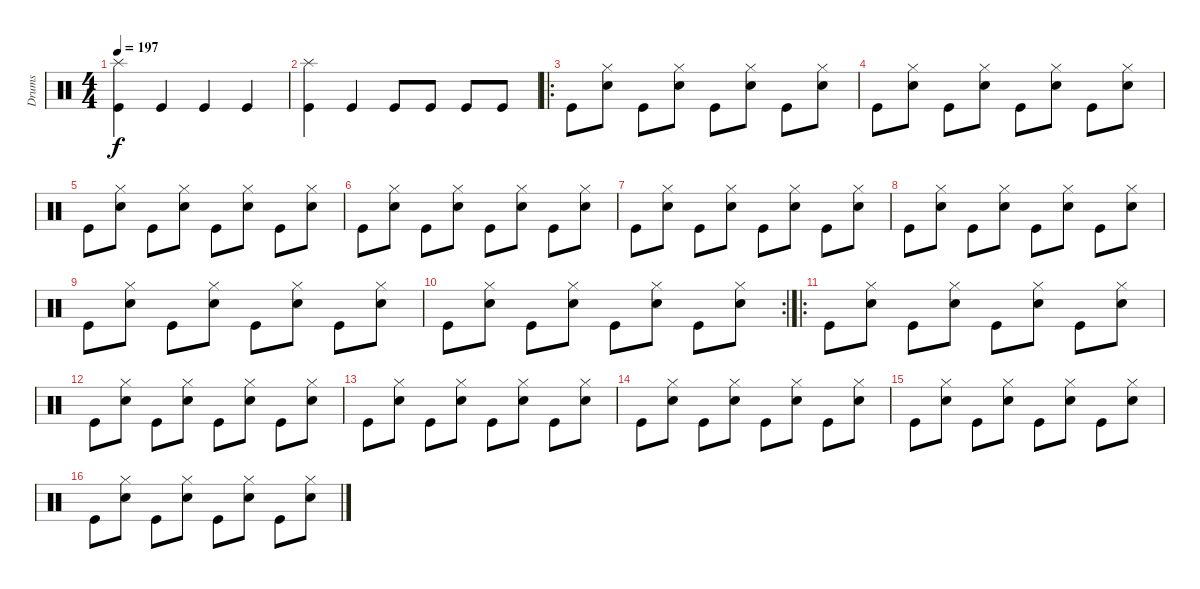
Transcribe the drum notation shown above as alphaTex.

\track ("Drums" "Drums") {instrument percussion}
\staff {score}
\articulation defaults
\ts (4 4)
\tempo 197
\clef neutral
\ks c
("Splash (hit)" "Kick (hit)").4{dy f} "Kick (hit)".4 "Kick (hit)".4 "Kick (hit)".4 |
("Splash (hit)" "Kick (hit)").4 "Kick (hit)".4 "Kick (hit)".8 "Kick (hit)".8 "Kick (hit)".8 "Kick (hit)".8 |
\ro "Kick (hit)".8
("Hi-Hat (closed)" "Snare (hit) 2").8 "Kick (hit)".8 ("Hi-Hat (closed)" "Snare (hit) 2").8 "Kick (hit)".8 ("Hi-Hat (closed)" "Snare (hit) 2").8 "Kick (hit)".8 ("Hi-Hat (closed)" "Snare (hit) 2").8 |
"Kick (hit)".8 ("Hi-Hat (closed)" "Snare (hit) 2").8 "Kick (hit)".8 ("Hi-Hat (closed)" "Snare (hit) 2").8 "Kick (hit)".8 ("Hi-Hat (closed)" "Snare (hit) 2").8 "Kick (hit)".8 ("Hi-Hat (closed)" "Snare (hit) 2").8 |
"Kick (hit)".8 ("Hi-Hat (closed)" "Snare (hit) 2").8 "Kick (hit)".8 ("Hi-Hat (closed)" "Snare (hit) 2").8 "Kick (hit)".8 ("Hi-Hat (closed)" "Snare (hit) 2").8 "Kick (hit)".8 ("Hi-Hat (closed)" "Snare (hit) 2").8 |
"Kick (hit)".8 ("Hi-Hat (closed)" "Snare (hit) 2").8 "Kick (hit)".8 ("Hi-Hat (closed)" "Snare (hit) 2").8 "Kick (hit)".8 ("Hi-Hat (closed)" "Snare (hit) 2").8 "Kick (hit)".8 ("Hi-Hat (closed)" "Snare (hit) 2").8 |
"Kick (hit)".8 ("Hi-Hat (closed)" "Snare (hit) 2").8 "Kick (hit)".8 ("Hi-Hat (closed)" "Snare (hit) 2").8 "Kick (hit)".8 ("Hi-Hat (closed)" "Snare (hit) 2").8 "Kick (hit)".8 ("Hi-Hat (closed)" "Snare (hit) 2").8 |
"Kick (hit)".8 ("Hi-Hat (closed)" "Snare (hit) 2").8 "Kick (hit)".8 ("Hi-Hat (closed)" "Snare (hit) 2").8 "Kick (hit)".8 ("Hi-Hat (closed)" "Snare (hit) 2").8 "Kick (hit)".8 ("Hi-Hat (closed)" "Snare (hit) 2").8 |
"Kick (hit)".8 ("Hi-Hat (closed)" "Snare (hit) 2").8 "Kick (hit)".8 ("Hi-Hat (closed)" "Snare (hit) 2").8 "Kick (hit)".8 ("Hi-Hat (closed)" "Snare (hit) 2").8 "Kick (hit)".8 ("Hi-Hat (closed)" "Snare (hit) 2").8 |
\rc 2 "Kick (hit)".8
("Hi-Hat (closed)" "Snare (hit) 2").8 "Kick (hit)".8 ("Hi-Hat (closed)" "Snare (hit) 2").8 "Kick (hit)".8 ("Hi-Hat (closed)" "Snare (hit) 2").8 "Kick (hit)".8 ("Hi-Hat (closed)" "Snare (hit) 2").8 |
\ro "Kick (hit)".8
("Hi-Hat (closed)" "Snare (hit) 2").8 "Kick (hit)".8 ("Hi-Hat (closed)" "Snare (hit) 2").8 "Kick (hit)".8 ("Hi-Hat (closed)" "Snare (hit) 2").8 "Kick (hit)".8 ("Hi-Hat (closed)" "Snare (hit) 2").8 |
"Kick (hit)".8 ("Hi-Hat (closed)" "Snare (hit) 2").8 "Kick (hit)".8 ("Hi-Hat (closed)" "Snare (hit) 2").8 "Kick (hit)".8 ("Hi-Hat (closed)" "Snare (hit) 2").8 "Kick (hit)".8 ("Hi-Hat (closed)" "Snare (hit) 2").8 |
"Kick (hit)".8 ("Hi-Hat (closed)" "Snare (hit) 2").8 "Kick (hit)".8 ("Hi-Hat (closed)" "Snare (hit) 2").8 "Kick (hit)".8 ("Hi-Hat (closed)" "Snare (hit) 2").8 "Kick (hit)".8 ("Hi-Hat (closed)" "Snare (hit) 2").8 |
"Kick (hit)".8 ("Hi-Hat (closed)" "Snare (hit) 2").8 "Kick (hit)".8 ("Hi-Hat (closed)" "Snare (hit) 2").8 "Kick (hit)".8 ("Hi-Hat (closed)" "Snare (hit) 2").8 "Kick (hit)".8 ("Hi-Hat (closed)" "Snare (hit) 2").8 |
"Kick (hit)".8 ("Hi-Hat (closed)" "Snare (hit) 2").8 "Kick (hit)".8 ("Hi-Hat (closed)" "Snare (hit) 2").8 "Kick (hit)".8 ("Hi-Hat (closed)" "Snare (hit) 2").8 "Kick (hit)".8 ("Hi-Hat (closed)" "Snare (hit) 2").8 |
"Kick (hit)".8 ("Hi-Hat (closed)" "Snare (hit) 2").8 "Kick (hit)".8 ("Hi-Hat (closed)" "Snare (hit) 2").8 "Kick (hit)".8 ("Hi-Hat (closed)" "Snare (hit) 2").8 "Kick (hit)".8 ("Hi-Hat (closed)" "Snare (hit) 2").8
